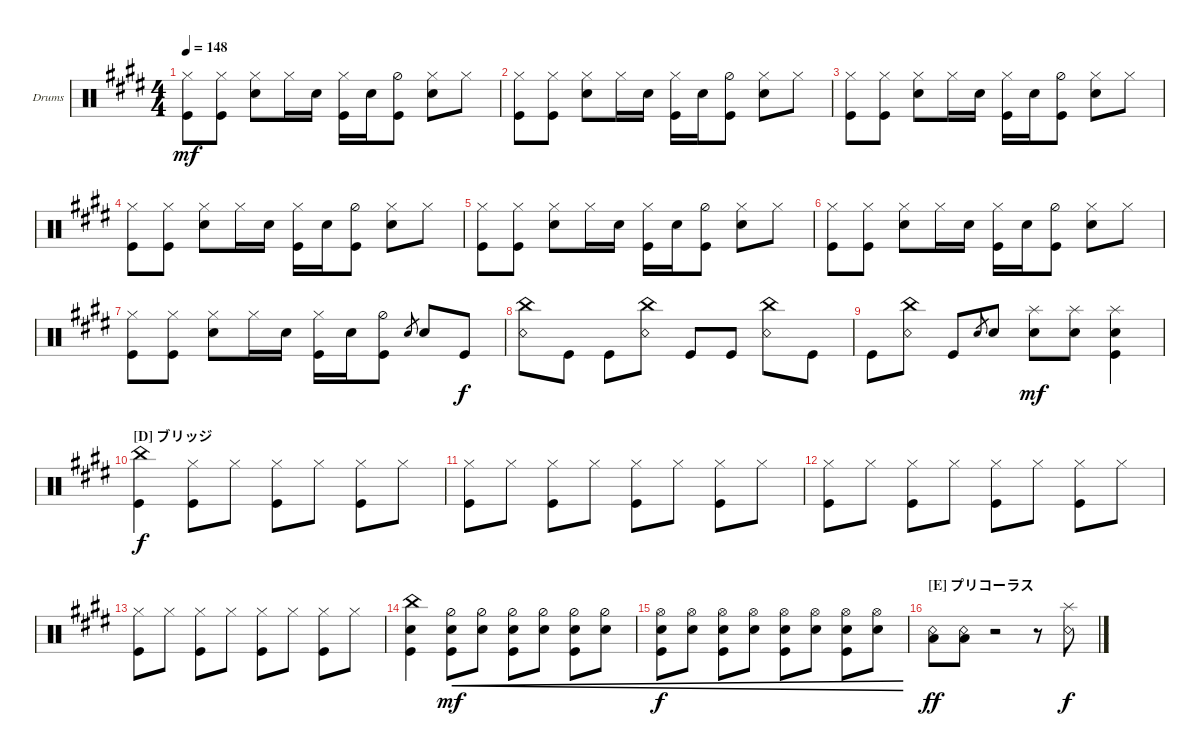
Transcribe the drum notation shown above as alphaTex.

\bracketExtendMode groupsimilarinstruments
\firstSystemTrackNameOrientation horizontal
\otherSystemsTrackNameOrientation horizontal
\track ("Ichigo" "Drums") {instrument percussion}
\staff {score}
\articulation defaults
\ts (4 4)
\tempo 148
\clef neutral
\ks e
("Kick (hit)" "Hi-Hat (closed)").8{dy mf} ("Kick (hit)" "Hi-Hat (closed)").8 ("Snare (hit) 2" "Hi-Hat (closed)").8 "Hi-Hat (closed)".16 "Snare (hit) 2".16 ("Hi-Hat (closed)" "Kick (hit)").16 "Snare (hit) 2".16 ("Kick (hit)" "Hi-Hat (half)").8 ("Hi-Hat (closed)" "Snare (hit) 2").8 "Hi-Hat (closed)".8 |
("Kick (hit)" "Hi-Hat (closed)").8 ("Kick (hit)" "Hi-Hat (closed)").8 ("Snare (hit) 2" "Hi-Hat (closed)").8 "Hi-Hat (closed)".16 "Snare (hit) 2".16 ("Hi-Hat (closed)" "Kick (hit)").16 "Snare (hit) 2".16 ("Kick (hit)" "Hi-Hat (half)").8 ("Hi-Hat (closed)" "Snare (hit) 2").8 "Hi-Hat (closed)".8 |
("Kick (hit)" "Hi-Hat (closed)").8 ("Kick (hit)" "Hi-Hat (closed)").8 ("Snare (hit) 2" "Hi-Hat (closed)").8 "Hi-Hat (closed)".16 "Snare (hit) 2".16 ("Hi-Hat (closed)" "Kick (hit)").16 "Snare (hit) 2".16 ("Kick (hit)" "Hi-Hat (half)").8 ("Hi-Hat (closed)" "Snare (hit) 2").8 "Hi-Hat (closed)".8 |
("Kick (hit)" "Hi-Hat (closed)").8 ("Kick (hit)" "Hi-Hat (closed)").8 ("Snare (hit) 2" "Hi-Hat (closed)").8 "Hi-Hat (closed)".16 "Snare (hit) 2".16 ("Hi-Hat (closed)" "Kick (hit)").16 "Snare (hit) 2".16 ("Kick (hit)" "Hi-Hat (half)").8 ("Hi-Hat (closed)" "Snare (hit) 2").8 "Hi-Hat (closed)".8 |
("Kick (hit)" "Hi-Hat (closed)").8 ("Kick (hit)" "Hi-Hat (closed)").8 ("Snare (hit) 2" "Hi-Hat (closed)").8 "Hi-Hat (closed)".16 "Snare (hit) 2".16 ("Hi-Hat (closed)" "Kick (hit)").16 "Snare (hit) 2".16 ("Kick (hit)" "Hi-Hat (half)").8 ("Hi-Hat (closed)" "Snare (hit) 2").8 "Hi-Hat (closed)".8 |
("Kick (hit)" "Hi-Hat (closed)").8 ("Kick (hit)" "Hi-Hat (closed)").8 ("Snare (hit) 2" "Hi-Hat (closed)").8 "Hi-Hat (closed)".16 "Snare (hit) 2".16 ("Hi-Hat (closed)" "Kick (hit)").16 "Snare (hit) 2".16 ("Kick (hit)" "Hi-Hat (half)").8 ("Hi-Hat (closed)" "Snare (hit) 2").8 "Hi-Hat (closed)".8 |
("Kick (hit)" "Hi-Hat (closed)").8 ("Kick (hit)" "Hi-Hat (closed)").8 ("Snare (hit) 2" "Hi-Hat (closed)").8 "Hi-Hat (closed)".16 "Snare (hit) 2".16 ("Hi-Hat (closed)" "Kick (hit)").16 "Snare (hit) 2".16 ("Kick (hit)" "Hi-Hat (half)").8 "Snare (hit) 2".8{gr} "Snare (hit) 2".8 "Kick (hit)".8{dy f} |
("China (hit)" "Snare (rim shot)").8 "Kick (hit)".8 "Kick (hit)".8 ("Snare (rim shot)" "China (hit)").8 "Kick (hit)".8 "Kick (hit)".8 ("Snare (rim shot)" "China (hit)").8 "Kick (hit)".8 |
"Kick (hit)".8 ("Snare (rim shot)" "China (hit)").8 "Kick (hit)".8 "Snare (hit) 2".8{gr} "Snare (hit) 2".8 ("Snare (hit) 2" "Splash (hit)").8{dy mf} ("Snare (hit) 2" "Splash (hit)").8 ("Snare (hit) 2" "Kick (hit)" "Splash (hit)").4 |
\section ("D" "ブリッジ")
("China (hit)" "Kick (hit)").4{dy f} ("Hi-Hat (closed)" "Kick (hit)").8 "Hi-Hat (closed)".8 ("Hi-Hat (closed)" "Kick (hit)").8 "Hi-Hat (closed)".8 ("Hi-Hat (closed)" "Kick (hit)").8 "Hi-Hat (closed)".8 |
("Hi-Hat (closed)" "Kick (hit)").8 "Hi-Hat (closed)".8 ("Hi-Hat (closed)" "Kick (hit)").8 "Hi-Hat (closed)".8 ("Hi-Hat (closed)" "Kick (hit)").8 "Hi-Hat (closed)".8 ("Hi-Hat (closed)" "Kick (hit)").8 "Hi-Hat (closed)".8 |
("Hi-Hat (closed)" "Kick (hit)").8 "Hi-Hat (closed)".8 ("Hi-Hat (closed)" "Kick (hit)").8 "Hi-Hat (closed)".8 ("Hi-Hat (closed)" "Kick (hit)").8 "Hi-Hat (closed)".8 ("Hi-Hat (closed)" "Kick (hit)").8 "Hi-Hat (closed)".8 |
("Hi-Hat (closed)" "Kick (hit)").8 "Hi-Hat (closed)".8 ("Hi-Hat (closed)" "Kick (hit)").8 "Hi-Hat (closed)".8 ("Hi-Hat (closed)" "Kick (hit)").8 "Hi-Hat (closed)".8 ("Hi-Hat (closed)" "Kick (hit)").8 "Hi-Hat (closed)".8 |
("China (hit)" "Kick (hit)" "Snare (hit) 2").4 ("Hi-Hat (half)" "Kick (hit)" "Snare (hit) 2").8{cre dy mf} ("Hi-Hat (half)" "Snare (hit) 2").8{cre} ("Hi-Hat (half)" "Kick (hit)" "Snare (hit) 2").8{cre} ("Hi-Hat (half)" "Snare (hit) 2").8{cre} ("Hi-Hat (half)" "Kick (hit)" "Snare (hit) 2").8{cre} ("Hi-Hat (half)" "Snare (hit) 2").8{cre} |
("Hi-Hat (open)" "Kick (hit)" "Snare (hit) 2").8{cre dy f} ("Hi-Hat (open)" "Snare (hit) 2").8{cre} ("Hi-Hat (open)" "Kick (hit)" "Snare (hit) 2").8{cre} ("Hi-Hat (open)" "Snare (hit) 2").8{cre} ("Hi-Hat (open)" "Kick (hit)" "Snare (hit) 2").8{cre} ("Hi-Hat (open)" "Snare (hit) 2").8{cre} ("Hi-Hat (open)" "Kick (hit)" "Snare (hit) 2").8{cre} ("Hi-Hat (open)" "Snare (hit) 2").8{cre} |
\section ("E" "プリコーラス")
("Snare (rim shot)" "Low Tom (hit)").8{dy ff} ("Low Tom (hit)" "Snare (rim shot)").8 r.2 r.8 ("Snare (rim shot)" "Splash (hit)").8{dy f}
